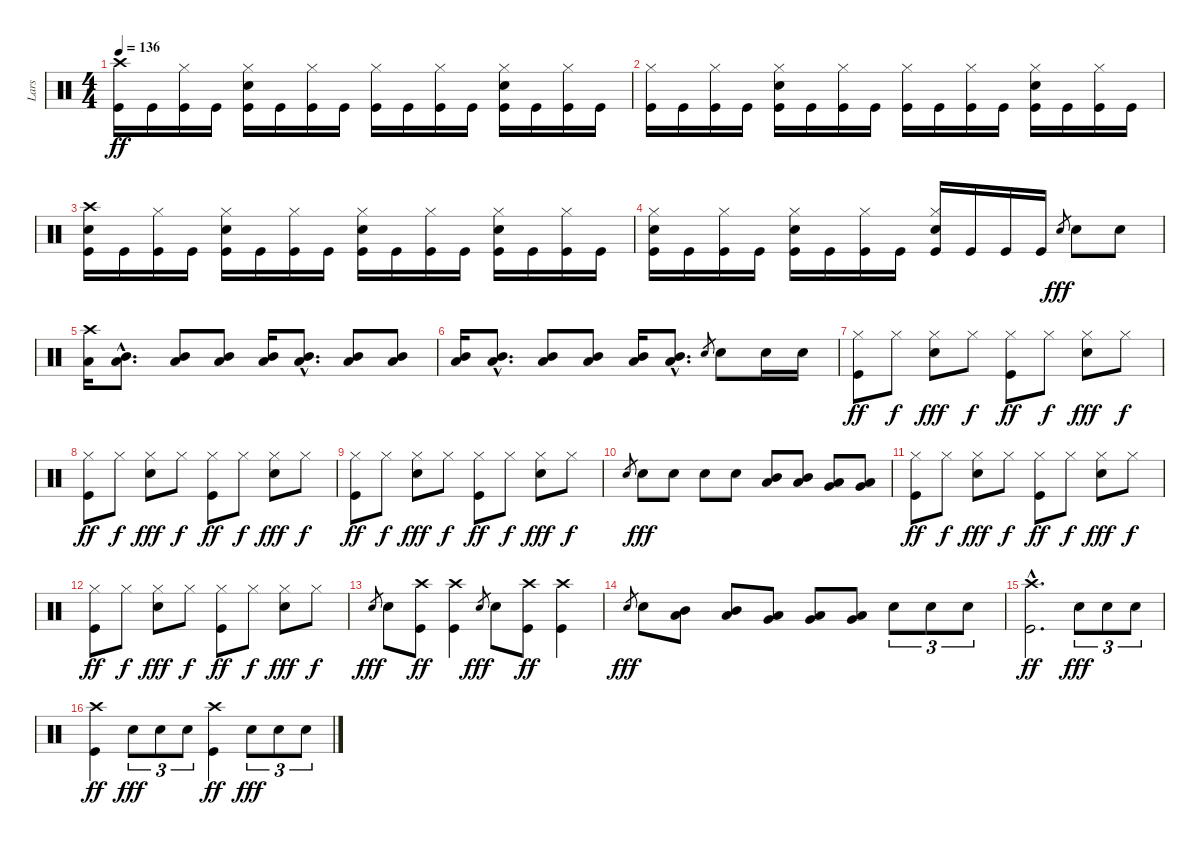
\track ("Lars" "Lars") {instrument percussion}
\staff {score}
\articulation defaults
\ts (4 4)
\tempo 136
\clef neutral
\ks c
("Crash high (hit)" "Kick (hit)").16{dy ff} "Kick (hit)".16 ("Hi-Hat (closed)" "Kick (hit)").16 "Kick (hit)".16 ("Hi-Hat (closed)" "Electric Snare (hit)" "Kick (hit)").16 "Kick (hit)".16 ("Hi-Hat (closed)" "Kick (hit)").16 "Kick (hit)".16 ("Hi-Hat (closed)" "Kick (hit)").16 "Kick (hit)".16 ("Hi-Hat (closed)" "Kick (hit)").16 "Kick (hit)".16 ("Hi-Hat (closed)" "Electric Snare (hit)" "Kick (hit)").16 "Kick (hit)".16 ("Hi-Hat (closed)" "Kick (hit)").16 "Kick (hit)".16 |
("Hi-Hat (closed)" "Kick (hit)").16 "Kick (hit)".16 ("Hi-Hat (closed)" "Kick (hit)").16 "Kick (hit)".16 ("Hi-Hat (closed)" "Electric Snare (hit)" "Kick (hit)").16 "Kick (hit)".16 ("Hi-Hat (closed)" "Kick (hit)").16 "Kick (hit)".16 ("Hi-Hat (closed)" "Kick (hit)").16 "Kick (hit)".16 ("Hi-Hat (closed)" "Kick (hit)").16 "Kick (hit)".16 ("Hi-Hat (closed)" "Electric Snare (hit)" "Kick (hit)").16 "Kick (hit)".16 ("Hi-Hat (closed)" "Kick (hit)").16 "Kick (hit)".16 |
("Crash high (hit)" "Electric Snare (hit)" "Kick (hit)").16 "Kick (hit)".16 ("Hi-Hat (closed)" "Kick (hit)").16 "Kick (hit)".16 ("Hi-Hat (closed)" "Electric Snare (hit)" "Kick (hit)").16 "Kick (hit)".16 ("Hi-Hat (closed)" "Kick (hit)").16 "Kick (hit)".16 ("Hi-Hat (closed)" "Electric Snare (hit)" "Kick (hit)").16 "Kick (hit)".16 ("Hi-Hat (closed)" "Kick (hit)").16 "Kick (hit)".16 ("Hi-Hat (closed)" "Electric Snare (hit)" "Kick (hit)").16 "Kick (hit)".16 ("Hi-Hat (closed)" "Kick (hit)").16 "Kick (hit)".16 |
("Hi-Hat (closed)" "Electric Snare (hit)" "Kick (hit)").16 "Kick (hit)".16 ("Hi-Hat (closed)" "Kick (hit)").16 "Kick (hit)".16 ("Hi-Hat (closed)" "Electric Snare (hit)" "Kick (hit)").16 "Kick (hit)".16 ("Hi-Hat (closed)" "Kick (hit)").16 "Kick (hit)".16 ("Hi-Hat (closed)" "Electric Snare (hit)" "Kick (hit)").16 "Kick (hit)".16 "Kick (hit)".16 "Kick (hit)".16 "Electric Snare (hit)".8{gr dy fff} "Electric Snare (hit)".8 "Electric Snare (hit)".8 |
("Crash high (hit)" "Low Tom (hit)").16 ("Mid Tom (hit)"{hac} "Low Tom (hit)"{hac}).8{d} ("Mid Tom (hit)" "Low Tom (hit)").8 ("Mid Tom (hit)" "Low Tom (hit)").8 ("Mid Tom (hit)" "Low Tom (hit)").16 ("Mid Tom (hit)"{hac} "Low Tom (hit)"{hac}).8{d} ("Mid Tom (hit)" "Low Tom (hit)").8 ("Mid Tom (hit)" "Low Tom (hit)").8 |
("Mid Tom (hit)" "Low Tom (hit)").16 ("Mid Tom (hit)"{hac} "Low Tom (hit)"{hac}).8{d} ("Mid Tom (hit)" "Low Tom (hit)").8 ("Mid Tom (hit)" "Low Tom (hit)").8 ("Mid Tom (hit)" "Low Tom (hit)").16 ("Mid Tom (hit)"{hac} "Low Tom (hit)"{hac}).8{d} "Electric Snare (hit)".8{gr} "Electric Snare (hit)".8 "Electric Snare (hit)".16 "Electric Snare (hit)".16 |
("Hi-Hat (closed)" "Kick (hit)").8{dy ff} "Hi-Hat (closed)".8{dy f} ("Hi-Hat (closed)" "Electric Snare (hit)").8{dy fff} "Hi-Hat (closed)".8{dy f} ("Hi-Hat (closed)" "Kick (hit)").8{dy ff} "Hi-Hat (closed)".8{dy f} ("Hi-Hat (closed)" "Electric Snare (hit)").8{dy fff} "Hi-Hat (closed)".8{dy f} |
("Hi-Hat (closed)" "Kick (hit)").8{dy ff} "Hi-Hat (closed)".8{dy f} ("Hi-Hat (closed)" "Electric Snare (hit)").8{dy fff} "Hi-Hat (closed)".8{dy f} ("Hi-Hat (closed)" "Kick (hit)").8{dy ff} "Hi-Hat (closed)".8{dy f} ("Hi-Hat (closed)" "Electric Snare (hit)").8{dy fff} "Hi-Hat (closed)".8{dy f} |
("Hi-Hat (closed)" "Kick (hit)").8{dy ff} "Hi-Hat (closed)".8{dy f} ("Hi-Hat (closed)" "Electric Snare (hit)").8{dy fff} "Hi-Hat (closed)".8{dy f} ("Hi-Hat (closed)" "Kick (hit)").8{dy ff} "Hi-Hat (closed)".8{dy f} ("Hi-Hat (closed)" "Electric Snare (hit)").8{dy fff} "Hi-Hat (closed)".8{dy f} |
"Electric Snare (hit)".8{gr} "Electric Snare (hit)".8{dy fff} "Electric Snare (hit)".8 "Electric Snare (hit)".8 "Electric Snare (hit)".8 ("Mid Tom (hit)" "Low Tom (hit)").8 ("Mid Tom (hit)" "Low Tom (hit)").8 ("Low Tom (hit)" "Very Low Tom (hit)").8 ("Low Tom (hit)" "Very Low Tom (hit)").8 |
("Hi-Hat (closed)" "Kick (hit)").8{dy ff} "Hi-Hat (closed)".8{dy f} ("Hi-Hat (closed)" "Electric Snare (hit)").8{dy fff} "Hi-Hat (closed)".8{dy f} ("Hi-Hat (closed)" "Kick (hit)").8{dy ff} "Hi-Hat (closed)".8{dy f} ("Hi-Hat (closed)" "Electric Snare (hit)").8{dy fff} "Hi-Hat (closed)".8{dy f} |
("Hi-Hat (closed)" "Kick (hit)").8{dy ff} "Hi-Hat (closed)".8{dy f} ("Hi-Hat (closed)" "Electric Snare (hit)").8{dy fff} "Hi-Hat (closed)".8{dy f} ("Hi-Hat (closed)" "Kick (hit)").8{dy ff} "Hi-Hat (closed)".8{dy f} ("Hi-Hat (closed)" "Electric Snare (hit)").8{dy fff} "Hi-Hat (closed)".8{dy f} |
"Electric Snare (hit)".8{gr dy fff} "Electric Snare (hit)".8 ("Crash high (hit)" "Kick (hit)").8{dy ff} ("Crash high (hit)" "Kick (hit)").4 "Electric Snare (hit)".8{gr dy fff} "Electric Snare (hit)".8 ("Crash high (hit)" "Kick (hit)").8{dy ff} ("Crash high (hit)" "Kick (hit)").4 |
"Electric Snare (hit)".8{gr dy fff} "Electric Snare (hit)".8 ("Mid Tom (hit)" "Low Tom (hit)").8 ("Mid Tom (hit)" "Low Tom (hit)").8 ("Low Tom (hit)" "Very Low Tom (hit)").8 ("Low Tom (hit)" "Very Low Tom (hit)").8 ("Very Low Tom (hit)" "Low Floor Tom (hit)").8 "Electric Snare (hit)".8{tu (3 2)} "Electric Snare (hit)".8{tu (3 2)} "Electric Snare (hit)".8{tu (3 2)} |
("Crash high (hit)"{hac} "Kick (hit)"{hac}).2{d dy ff} "Electric Snare (hit)".8{tu (3 2) dy fff} "Electric Snare (hit)".8{tu (3 2)} "Electric Snare (hit)".8{tu (3 2)} |
("Crash high (hit)" "Kick (hit)").4{dy ff} "Electric Snare (hit)".8{tu (3 2) dy fff} "Electric Snare (hit)".8{tu (3 2)} "Electric Snare (hit)".8{tu (3 2)} ("Crash high (hit)" "Kick (hit)").4{dy ff} "Electric Snare (hit)".8{tu (3 2) dy fff} "Electric Snare (hit)".8{tu (3 2)} "Electric Snare (hit)".8{tu (3 2)}
